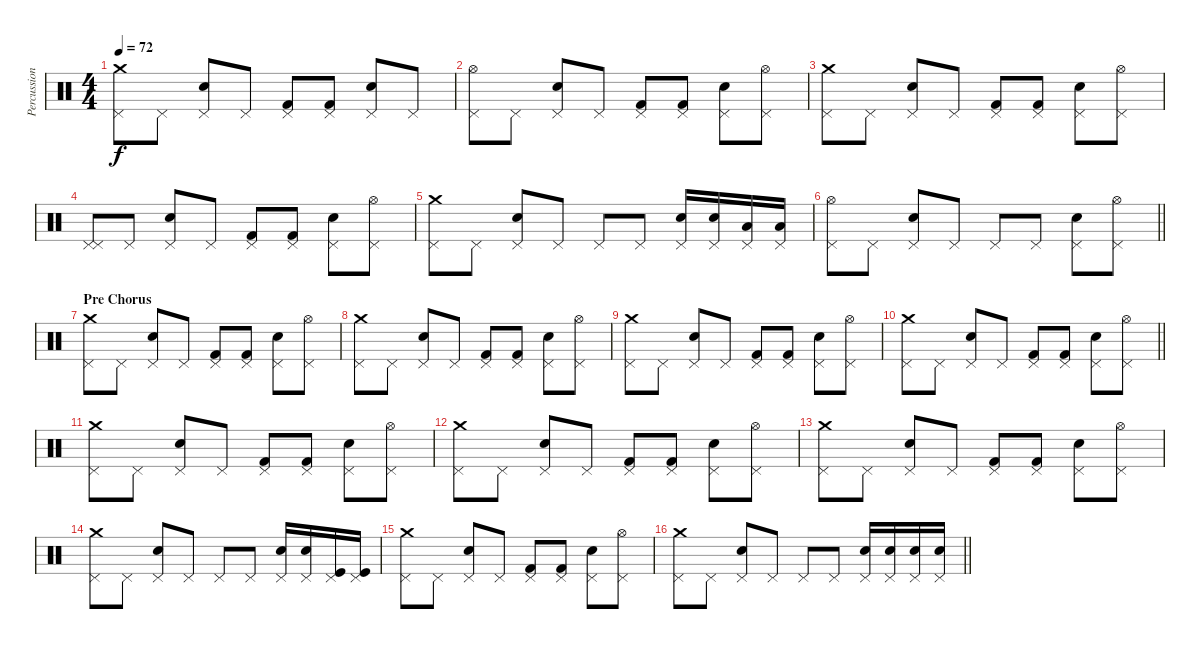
\track ("Percussion" "Percussion") {instrument percussion}
\staff {score}
\articulation defaults
\ts (4 4)
\tempo 72
\clef neutral
\ks c
("Pedal Hi-Hat (hit)" "Crash medium (hit)").8{dy f} "Pedal Hi-Hat (hit)".8 ("Pedal Hi-Hat (hit)" "Snare (hit) 2").8 "Pedal Hi-Hat (hit)".8 ("Pedal Hi-Hat (hit)" "Kick (hit) 2").8 ("Pedal Hi-Hat (hit)" "Kick (hit) 2").8 ("Pedal Hi-Hat (hit)" "Snare (hit) 2").8 "Pedal Hi-Hat (hit)".8 |
("Pedal Hi-Hat (hit)" "Hi-Hat (open)").8 "Pedal Hi-Hat (hit)".8 ("Pedal Hi-Hat (hit)" "Snare (hit) 2").8 "Pedal Hi-Hat (hit)".8 ("Pedal Hi-Hat (hit)" "Kick (hit) 2").8 ("Pedal Hi-Hat (hit)" "Kick (hit) 2").8 ("Pedal Hi-Hat (hit)" "Snare (hit) 2").8 ("Pedal Hi-Hat (hit)" "Hi-Hat (open)").8 |
("Pedal Hi-Hat (hit)" "Crash medium (hit)").8 "Pedal Hi-Hat (hit)".8 ("Pedal Hi-Hat (hit)" "Snare (hit) 2").8 "Pedal Hi-Hat (hit)".8 ("Pedal Hi-Hat (hit)" "Kick (hit) 2").8 ("Pedal Hi-Hat (hit)" "Kick (hit) 2").8 ("Pedal Hi-Hat (hit)" "Snare (hit) 2").8 ("Pedal Hi-Hat (hit)" "Hi-Hat (open)").8 |
("Pedal Hi-Hat (hit)" "Pedal Hi-Hat (hit)").8 "Pedal Hi-Hat (hit)".8 ("Pedal Hi-Hat (hit)" "Snare (hit) 2").8 "Pedal Hi-Hat (hit)".8 ("Pedal Hi-Hat (hit)" "Kick (hit) 2").8 ("Pedal Hi-Hat (hit)" "Kick (hit) 2").8 ("Pedal Hi-Hat (hit)" "Snare (hit) 2").8 ("Pedal Hi-Hat (hit)" "Hi-Hat (open)").8 |
("Pedal Hi-Hat (hit)" "Crash medium (hit)").8 "Pedal Hi-Hat (hit)".8 ("Pedal Hi-Hat (hit)" "Snare (hit) 2").8 "Pedal Hi-Hat (hit)".8 "Pedal Hi-Hat (hit)".8 "Pedal Hi-Hat (hit)".8 ("Pedal Hi-Hat (hit)" "Snare (hit) 2").16 ("Pedal Hi-Hat (hit)" "Snare (hit) 2").16 ("Pedal Hi-Hat (hit)" "Low Floor Tom (hit)").16 ("Pedal Hi-Hat (hit)" "Low Floor Tom (hit)").16 |
\barLineRight lightlight
("Pedal Hi-Hat (hit)" "Hi-Hat (open)").8 "Pedal Hi-Hat (hit)".8 ("Pedal Hi-Hat (hit)" "Snare (hit) 2").8 "Pedal Hi-Hat (hit)".8 "Pedal Hi-Hat (hit)".8 "Pedal Hi-Hat (hit)".8 ("Pedal Hi-Hat (hit)" "Snare (hit) 2").8 ("Pedal Hi-Hat (hit)" "Hi-Hat (open)").8 |
\section ("" "Pre Chorus")
("Pedal Hi-Hat (hit)" "Crash medium (hit)").8 "Pedal Hi-Hat (hit)".8 ("Pedal Hi-Hat (hit)" "Snare (hit) 2").8 "Pedal Hi-Hat (hit)".8 ("Pedal Hi-Hat (hit)" "Kick (hit) 2").8 ("Pedal Hi-Hat (hit)" "Kick (hit) 2").8 ("Pedal Hi-Hat (hit)" "Snare (hit) 2").8 ("Pedal Hi-Hat (hit)" "Hi-Hat (open)").8 |
("Pedal Hi-Hat (hit)" "Crash medium (hit)").8 "Pedal Hi-Hat (hit)".8 ("Pedal Hi-Hat (hit)" "Snare (hit) 2").8 "Pedal Hi-Hat (hit)".8 ("Pedal Hi-Hat (hit)" "Kick (hit) 2").8 ("Pedal Hi-Hat (hit)" "Kick (hit) 2").8 ("Pedal Hi-Hat (hit)" "Snare (hit) 2").8 ("Pedal Hi-Hat (hit)" "Hi-Hat (open)").8 |
("Pedal Hi-Hat (hit)" "Crash medium (hit)").8 "Pedal Hi-Hat (hit)".8 ("Pedal Hi-Hat (hit)" "Snare (hit) 2").8 "Pedal Hi-Hat (hit)".8 ("Pedal Hi-Hat (hit)" "Kick (hit) 2").8 ("Pedal Hi-Hat (hit)" "Kick (hit) 2").8 ("Pedal Hi-Hat (hit)" "Snare (hit) 2").8 ("Pedal Hi-Hat (hit)" "Hi-Hat (open)").8 |
\barLineRight lightlight
("Pedal Hi-Hat (hit)" "Crash medium (hit)").8 "Pedal Hi-Hat (hit)".8 ("Pedal Hi-Hat (hit)" "Snare (hit) 2").8 "Pedal Hi-Hat (hit)".8 ("Pedal Hi-Hat (hit)" "Kick (hit) 2").8 ("Pedal Hi-Hat (hit)" "Kick (hit) 2").8 ("Pedal Hi-Hat (hit)" "Snare (hit) 2").8 ("Pedal Hi-Hat (hit)" "Hi-Hat (open)").8 |
("Pedal Hi-Hat (hit)" "Crash medium (hit)").8 "Pedal Hi-Hat (hit)".8 ("Pedal Hi-Hat (hit)" "Snare (hit) 2").8 "Pedal Hi-Hat (hit)".8 ("Pedal Hi-Hat (hit)" "Kick (hit) 2").8 ("Pedal Hi-Hat (hit)" "Kick (hit) 2").8 ("Pedal Hi-Hat (hit)" "Snare (hit) 2").8 ("Pedal Hi-Hat (hit)" "Hi-Hat (open)").8 |
("Pedal Hi-Hat (hit)" "Crash medium (hit)").8 "Pedal Hi-Hat (hit)".8 ("Pedal Hi-Hat (hit)" "Snare (hit) 2").8 "Pedal Hi-Hat (hit)".8 ("Pedal Hi-Hat (hit)" "Kick (hit) 2").8 ("Pedal Hi-Hat (hit)" "Kick (hit) 2").8 ("Pedal Hi-Hat (hit)" "Snare (hit) 2").8 ("Pedal Hi-Hat (hit)" "Hi-Hat (open)").8 |
("Pedal Hi-Hat (hit)" "Crash medium (hit)").8 "Pedal Hi-Hat (hit)".8 ("Pedal Hi-Hat (hit)" "Snare (hit) 2").8 "Pedal Hi-Hat (hit)".8 ("Pedal Hi-Hat (hit)" "Kick (hit) 2").8 ("Pedal Hi-Hat (hit)" "Kick (hit) 2").8 ("Pedal Hi-Hat (hit)" "Snare (hit) 2").8 ("Pedal Hi-Hat (hit)" "Hi-Hat (open)").8 |
("Pedal Hi-Hat (hit)" "Crash medium (hit)").8 "Pedal Hi-Hat (hit)".8 ("Pedal Hi-Hat (hit)" "Snare (hit) 2").8 "Pedal Hi-Hat (hit)".8 "Pedal Hi-Hat (hit)".8 "Pedal Hi-Hat (hit)".8 ("Pedal Hi-Hat (hit)" "Snare (hit) 2").16 ("Pedal Hi-Hat (hit)" "Snare (hit) 2").16 ("Pedal Hi-Hat (hit)" "Kick (hit)").16 ("Pedal Hi-Hat (hit)" "Kick (hit)").16 |
("Pedal Hi-Hat (hit)" "Crash medium (hit)").8 "Pedal Hi-Hat (hit)".8 ("Pedal Hi-Hat (hit)" "Snare (hit) 2").8 "Pedal Hi-Hat (hit)".8 ("Pedal Hi-Hat (hit)" "Kick (hit) 2").8 ("Pedal Hi-Hat (hit)" "Kick (hit) 2").8 ("Pedal Hi-Hat (hit)" "Snare (hit) 2").8 ("Pedal Hi-Hat (hit)" "Hi-Hat (open)").8 |
\barLineRight lightlight
("Pedal Hi-Hat (hit)" "Crash medium (hit)").8 "Pedal Hi-Hat (hit)".8 ("Pedal Hi-Hat (hit)" "Snare (hit) 2").8 "Pedal Hi-Hat (hit)".8 "Pedal Hi-Hat (hit)".8 "Pedal Hi-Hat (hit)".8 ("Pedal Hi-Hat (hit)" "Snare (hit) 2").16 ("Pedal Hi-Hat (hit)" "Snare (hit) 2").16 ("Pedal Hi-Hat (hit)" "Electric Snare (hit)").16 ("Pedal Hi-Hat (hit)" "Electric Snare (hit)").16
